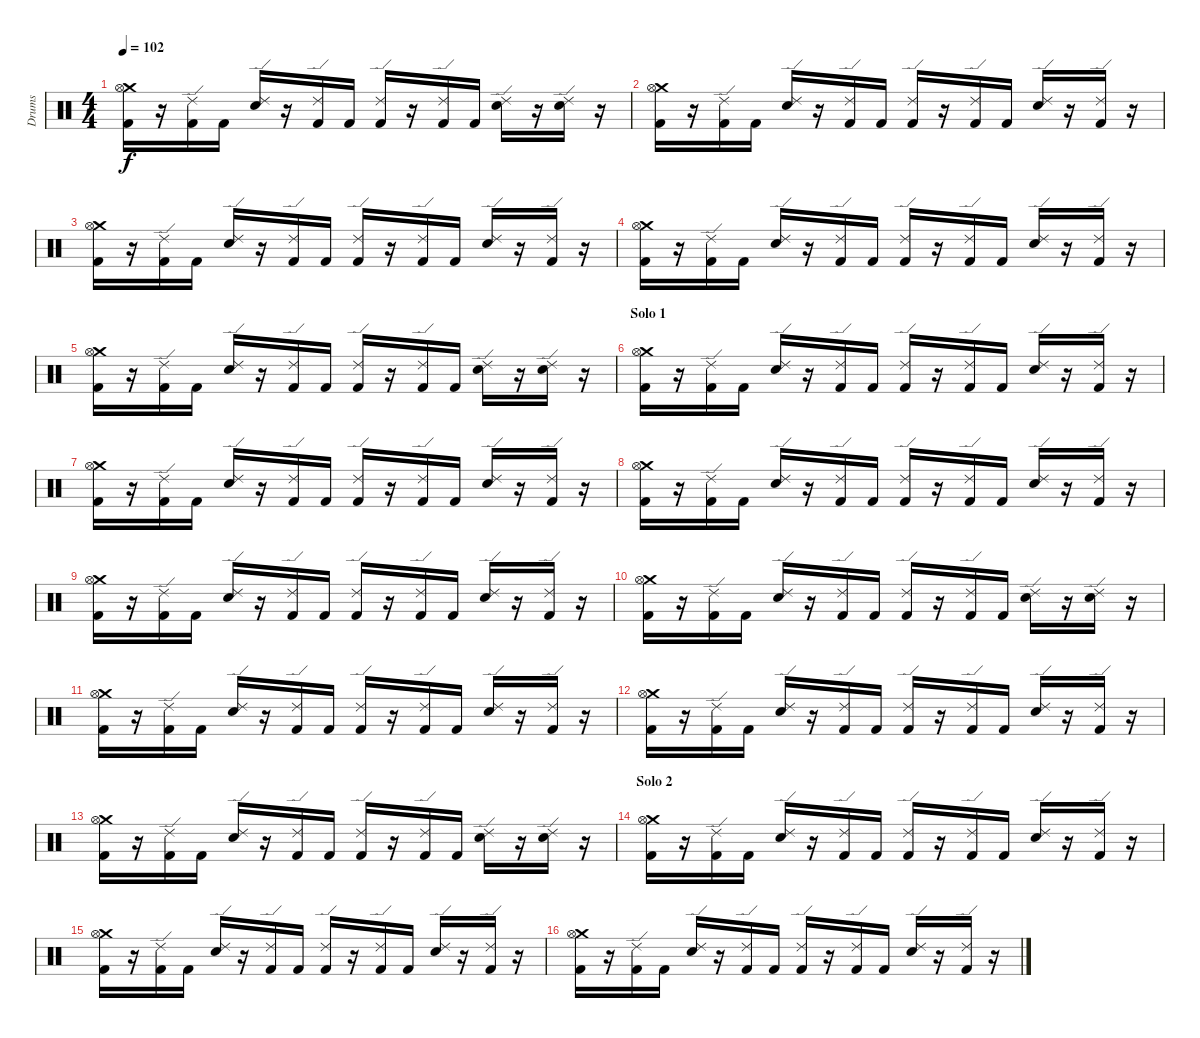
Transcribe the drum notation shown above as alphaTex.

\track ("Drums" "Drums") {instrument percussion}
\staff {score}
\articulation defaults
\ts (4 4)
\tempo 102
\clef neutral
\ks c
("Crash medium (hit)" "Hi-Hat (open)" "Kick (hit) 2").16{dy f} r.16 ("Ride (edge) 2" "Kick (hit) 2").16 "Kick (hit) 2".16 ("Ride (edge) 2" "Electric Snare (hit)").16 r.16 ("Ride (edge) 2" "Kick (hit) 2").16 "Kick (hit) 2".16 ("Ride (edge) 2" "Kick (hit) 2").16 r.16 ("Ride (edge) 2" "Kick (hit) 2").16 "Kick (hit) 2".16 ("Ride (edge) 2" "Electric Snare (hit)").16 r.16 ("Ride (edge) 2" "Electric Snare (hit)").16 r.16 |
("Crash medium (hit)" "Hi-Hat (open)" "Kick (hit) 2").16 r.16 ("Ride (edge) 2" "Kick (hit) 2").16 "Kick (hit) 2".16 ("Ride (edge) 2" "Electric Snare (hit)").16 r.16 ("Ride (edge) 2" "Kick (hit) 2").16 "Kick (hit) 2".16 ("Ride (edge) 2" "Kick (hit) 2").16 r.16 ("Ride (edge) 2" "Kick (hit) 2").16 "Kick (hit) 2".16 ("Ride (edge) 2" "Electric Snare (hit)").16 r.16 ("Ride (edge) 2" "Kick (hit) 2").16 r.16 |
("Crash medium (hit)" "Hi-Hat (open)" "Kick (hit) 2").16 r.16 ("Ride (edge) 2" "Kick (hit) 2").16 "Kick (hit) 2".16 ("Ride (edge) 2" "Electric Snare (hit)").16 r.16 ("Ride (edge) 2" "Kick (hit) 2").16 "Kick (hit) 2".16 ("Ride (edge) 2" "Kick (hit) 2").16 r.16 ("Ride (edge) 2" "Kick (hit) 2").16 "Kick (hit) 2".16 ("Ride (edge) 2" "Electric Snare (hit)").16 r.16 ("Ride (edge) 2" "Kick (hit) 2").16 r.16 |
("Crash medium (hit)" "Hi-Hat (open)" "Kick (hit) 2").16 r.16 ("Ride (edge) 2" "Kick (hit) 2").16 "Kick (hit) 2".16 ("Ride (edge) 2" "Electric Snare (hit)").16 r.16 ("Ride (edge) 2" "Kick (hit) 2").16 "Kick (hit) 2".16 ("Ride (edge) 2" "Kick (hit) 2").16 r.16 ("Ride (edge) 2" "Kick (hit) 2").16 "Kick (hit) 2".16 ("Ride (edge) 2" "Electric Snare (hit)").16 r.16 ("Ride (edge) 2" "Kick (hit) 2").16 r.16 |
("Crash medium (hit)" "Hi-Hat (open)" "Kick (hit) 2").16 r.16 ("Ride (edge) 2" "Kick (hit) 2").16 "Kick (hit) 2".16 ("Ride (edge) 2" "Electric Snare (hit)").16 r.16 ("Ride (edge) 2" "Kick (hit) 2").16 "Kick (hit) 2".16 ("Ride (edge) 2" "Kick (hit) 2").16 r.16 ("Ride (edge) 2" "Kick (hit) 2").16 "Kick (hit) 2".16 ("Ride (edge) 2" "Electric Snare (hit)").16 r.16 ("Ride (edge) 2" "Electric Snare (hit)").16 r.16 |
\section ("" "Solo 1")
("Crash medium (hit)" "Hi-Hat (open)" "Kick (hit) 2").16 r.16 ("Ride (edge) 2" "Kick (hit) 2").16 "Kick (hit) 2".16 ("Ride (edge) 2" "Electric Snare (hit)").16 r.16 ("Ride (edge) 2" "Kick (hit) 2").16 "Kick (hit) 2".16 ("Ride (edge) 2" "Kick (hit) 2").16 r.16 ("Ride (edge) 2" "Kick (hit) 2").16 "Kick (hit) 2".16 ("Ride (edge) 2" "Electric Snare (hit)").16 r.16 ("Ride (edge) 2" "Kick (hit) 2").16 r.16 |
("Crash medium (hit)" "Hi-Hat (open)" "Kick (hit) 2").16 r.16 ("Ride (edge) 2" "Kick (hit) 2").16 "Kick (hit) 2".16 ("Ride (edge) 2" "Electric Snare (hit)").16 r.16 ("Ride (edge) 2" "Kick (hit) 2").16 "Kick (hit) 2".16 ("Ride (edge) 2" "Kick (hit) 2").16 r.16 ("Ride (edge) 2" "Kick (hit) 2").16 "Kick (hit) 2".16 ("Ride (edge) 2" "Electric Snare (hit)").16 r.16 ("Ride (edge) 2" "Kick (hit) 2").16 r.16 |
("Crash medium (hit)" "Hi-Hat (open)" "Kick (hit) 2").16 r.16 ("Ride (edge) 2" "Kick (hit) 2").16 "Kick (hit) 2".16 ("Ride (edge) 2" "Electric Snare (hit)").16 r.16 ("Ride (edge) 2" "Kick (hit) 2").16 "Kick (hit) 2".16 ("Ride (edge) 2" "Kick (hit) 2").16 r.16 ("Ride (edge) 2" "Kick (hit) 2").16 "Kick (hit) 2".16 ("Ride (edge) 2" "Electric Snare (hit)").16 r.16 ("Ride (edge) 2" "Kick (hit) 2").16 r.16 |
("Crash medium (hit)" "Hi-Hat (open)" "Kick (hit) 2").16 r.16 ("Ride (edge) 2" "Kick (hit) 2").16 "Kick (hit) 2".16 ("Ride (edge) 2" "Electric Snare (hit)").16 r.16 ("Ride (edge) 2" "Kick (hit) 2").16 "Kick (hit) 2".16 ("Ride (edge) 2" "Kick (hit) 2").16 r.16 ("Ride (edge) 2" "Kick (hit) 2").16 "Kick (hit) 2".16 ("Ride (edge) 2" "Electric Snare (hit)").16 r.16 ("Ride (edge) 2" "Kick (hit) 2").16 r.16 |
("Crash medium (hit)" "Hi-Hat (open)" "Kick (hit) 2").16 r.16 ("Ride (edge) 2" "Kick (hit) 2").16 "Kick (hit) 2".16 ("Ride (edge) 2" "Electric Snare (hit)").16 r.16 ("Ride (edge) 2" "Kick (hit) 2").16 "Kick (hit) 2".16 ("Ride (edge) 2" "Kick (hit) 2").16 r.16 ("Ride (edge) 2" "Kick (hit) 2").16 "Kick (hit) 2".16 ("Ride (edge) 2" "Electric Snare (hit)").16 r.16 ("Ride (edge) 2" "Electric Snare (hit)").16 r.16 |
("Crash medium (hit)" "Hi-Hat (open)" "Kick (hit) 2").16 r.16 ("Ride (edge) 2" "Kick (hit) 2").16 "Kick (hit) 2".16 ("Ride (edge) 2" "Electric Snare (hit)").16 r.16 ("Ride (edge) 2" "Kick (hit) 2").16 "Kick (hit) 2".16 ("Ride (edge) 2" "Kick (hit) 2").16 r.16 ("Ride (edge) 2" "Kick (hit) 2").16 "Kick (hit) 2".16 ("Ride (edge) 2" "Electric Snare (hit)").16 r.16 ("Ride (edge) 2" "Kick (hit) 2").16 r.16 |
("Crash medium (hit)" "Hi-Hat (open)" "Kick (hit) 2").16 r.16 ("Ride (edge) 2" "Kick (hit) 2").16 "Kick (hit) 2".16 ("Ride (edge) 2" "Electric Snare (hit)").16 r.16 ("Ride (edge) 2" "Kick (hit) 2").16 "Kick (hit) 2".16 ("Ride (edge) 2" "Kick (hit) 2").16 r.16 ("Ride (edge) 2" "Kick (hit) 2").16 "Kick (hit) 2".16 ("Ride (edge) 2" "Electric Snare (hit)").16 r.16 ("Ride (edge) 2" "Kick (hit) 2").16 r.16 |
("Crash medium (hit)" "Hi-Hat (open)" "Kick (hit) 2").16 r.16 ("Ride (edge) 2" "Kick (hit) 2").16 "Kick (hit) 2".16 ("Ride (edge) 2" "Electric Snare (hit)").16 r.16 ("Ride (edge) 2" "Kick (hit) 2").16 "Kick (hit) 2".16 ("Ride (edge) 2" "Kick (hit) 2").16 r.16 ("Ride (edge) 2" "Kick (hit) 2").16 "Kick (hit) 2".16 ("Ride (edge) 2" "Electric Snare (hit)").16 r.16 ("Ride (edge) 2" "Electric Snare (hit)").16 r.16 |
\section ("" "Solo 2")
("Crash medium (hit)" "Hi-Hat (open)" "Kick (hit) 2").16 r.16 ("Ride (edge) 2" "Kick (hit) 2").16 "Kick (hit) 2".16 ("Ride (edge) 2" "Electric Snare (hit)").16 r.16 ("Ride (edge) 2" "Kick (hit) 2").16 "Kick (hit) 2".16 ("Ride (edge) 2" "Kick (hit) 2").16 r.16 ("Ride (edge) 2" "Kick (hit) 2").16 "Kick (hit) 2".16 ("Ride (edge) 2" "Electric Snare (hit)").16 r.16 ("Ride (edge) 2" "Kick (hit) 2").16 r.16 |
("Crash medium (hit)" "Hi-Hat (open)" "Kick (hit) 2").16 r.16 ("Ride (edge) 2" "Kick (hit) 2").16 "Kick (hit) 2".16 ("Ride (edge) 2" "Electric Snare (hit)").16 r.16 ("Ride (edge) 2" "Kick (hit) 2").16 "Kick (hit) 2".16 ("Ride (edge) 2" "Kick (hit) 2").16 r.16 ("Ride (edge) 2" "Kick (hit) 2").16 "Kick (hit) 2".16 ("Ride (edge) 2" "Electric Snare (hit)").16 r.16 ("Ride (edge) 2" "Kick (hit) 2").16 r.16 |
("Crash medium (hit)" "Hi-Hat (open)" "Kick (hit) 2").16 r.16 ("Ride (edge) 2" "Kick (hit) 2").16 "Kick (hit) 2".16 ("Ride (edge) 2" "Electric Snare (hit)").16 r.16 ("Ride (edge) 2" "Kick (hit) 2").16 "Kick (hit) 2".16 ("Ride (edge) 2" "Kick (hit) 2").16 r.16 ("Ride (edge) 2" "Kick (hit) 2").16 "Kick (hit) 2".16 ("Ride (edge) 2" "Electric Snare (hit)").16 r.16 ("Ride (edge) 2" "Kick (hit) 2").16 r.16
